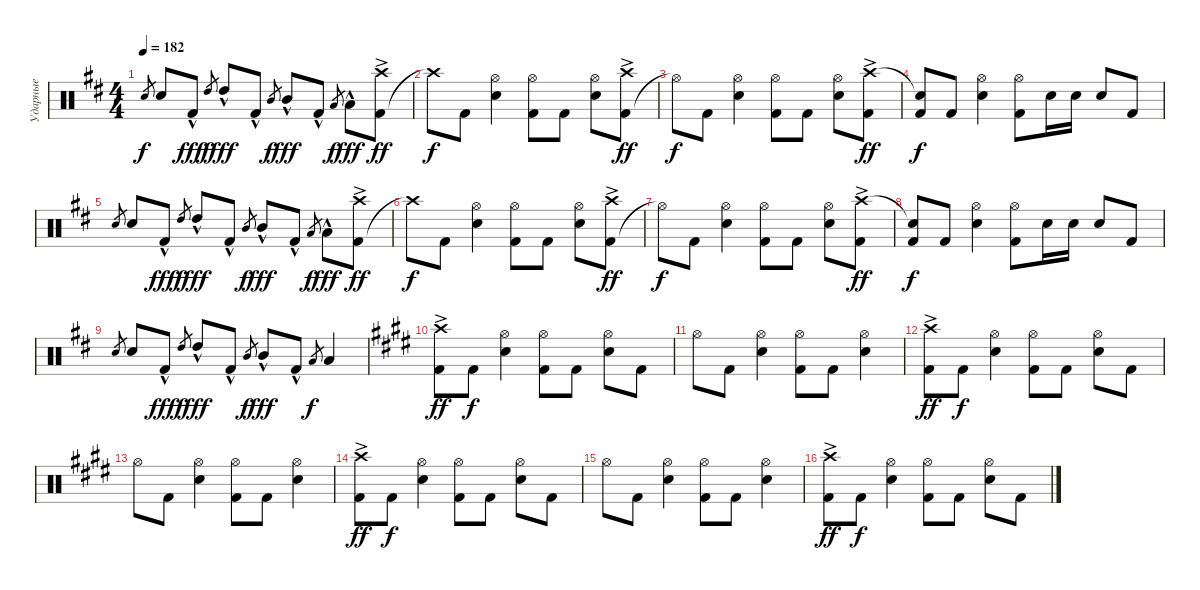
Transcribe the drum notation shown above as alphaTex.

\track ("Ударные" "Ударные") {instrument percussion}
\staff {score}
\articulation defaults
\ts (4 4)
\tempo 182
\clef neutral
\ks d "Snare (hit) 2".8{gr dy f} "Snare (hit) 2".8 "Kick (hit) 2"{hac}.8{dy fff} "High Tom (hit)".8{gr dy f} "High Tom (hit)"{hac}.8{dy fff} "Kick (hit) 2"{hac}.8 "Mid Tom (hit)".8{gr dy f} "Mid Tom (hit)"{hac}.8{dy fff} "Kick (hit) 2"{hac}.8 "Low Tom (hit)".8{gr dy f} "Low Tom (hit)"{hac}.8{dy fff}
("Kick (hit) 2" "Crash high (hit)"{ac}).8{dy ff} |
"Crash high (hit)"{t}.8{dy f} "Kick (hit) 2".8 ("Snare (hit) 2" "Hi-Hat (open)").4 ("Kick (hit) 2" "Hi-Hat (open)").8 "Kick (hit) 2".8 ("Snare (hit) 2" "Hi-Hat (open)").8 ("Kick (hit) 2" "Crash high (hit)"{ac}).8{dy ff} |
"Hi-Hat (open)"{t}.8{dy f} "Kick (hit) 2".8 ("Snare (hit) 2" "Hi-Hat (open)").4 ("Kick (hit) 2" "Hi-Hat (open)").8 "Kick (hit) 2".8 ("Snare (hit) 2" "Hi-Hat (open)").8 ("Kick (hit) 2" "Crash high (hit)"{ac}).8{dy ff} |
("Kick (hit) 2" "Snare (hit)"{t}).8{dy f} "Kick (hit) 2".8 ("Snare (hit) 2" "Hi-Hat (open)").4 ("Kick (hit) 2" "Hi-Hat (open)").8 "Snare (hit) 2".16 "Snare (hit) 2".16 "Snare (hit) 2".8 "Kick (hit) 2".8 |
"Snare (hit) 2".8{gr} "Snare (hit) 2".8 "Kick (hit) 2"{hac}.8{dy fff} "High Tom (hit)".8{gr dy f} "High Tom (hit)"{hac}.8{dy fff} "Kick (hit) 2"{hac}.8 "Mid Tom (hit)".8{gr dy f} "Mid Tom (hit)"{hac}.8{dy fff} "Kick (hit) 2"{hac}.8 "Low Tom (hit)".8{gr dy f} "Low Tom (hit)"{hac}.8{dy fff} ("Kick (hit) 2" "Crash high (hit)"{ac}).8{dy ff} |
"Crash high (hit)"{t}.8{dy f} "Kick (hit) 2".8 ("Snare (hit) 2" "Hi-Hat (open)").4 ("Kick (hit) 2" "Hi-Hat (open)").8 "Kick (hit) 2".8 ("Snare (hit) 2" "Hi-Hat (open)").8 ("Kick (hit) 2" "Crash high (hit)"{ac}).8{dy ff} |
"Hi-Hat (open)"{t}.8{dy f} "Kick (hit) 2".8 ("Snare (hit) 2" "Hi-Hat (open)").4 ("Kick (hit) 2" "Hi-Hat (open)").8 "Kick (hit) 2".8 ("Snare (hit) 2" "Hi-Hat (open)").8 ("Kick (hit) 2" "Crash high (hit)"{ac}).8{dy ff} |
("Kick (hit) 2" "Snare (hit)"{t}).8{dy f} "Kick (hit) 2".8 ("Snare (hit) 2" "Hi-Hat (open)").4 ("Kick (hit) 2" "Hi-Hat (open)").8 "Snare (hit) 2".16 "Snare (hit) 2".16 "Snare (hit) 2".8 "Kick (hit) 2".8 |
"Snare (hit) 2".8{gr} "Snare (hit) 2".8 "Kick (hit) 2"{hac}.8{dy fff} "High Tom (hit)".8{gr dy f} "High Tom (hit)"{hac}.8{dy fff} "Kick (hit) 2"{hac}.8 "Mid Tom (hit)".8{gr dy f} "Mid Tom (hit)"{hac}.8{dy fff} "Kick (hit) 2"{hac}.8 "Low Tom (hit)".8{gr dy f} "Low Tom (hit)".4 |
\ks e
("Kick (hit) 2" "Crash high (hit)"{ac}).8{dy ff} "Kick (hit) 2".8{dy f} ("Snare (hit) 2" "Hi-Hat (open)").4 ("Kick (hit) 2" "Hi-Hat (open)").8 "Kick (hit) 2".8 ("Snare (hit) 2" "Hi-Hat (open)").8 "Kick (hit) 2".8 |
"Hi-Hat (open)".8 "Kick (hit) 2".8 ("Snare (hit) 2" "Hi-Hat (open)").4 ("Kick (hit) 2" "Hi-Hat (open)").8 "Kick (hit) 2".8 ("Snare (hit) 2" "Hi-Hat (open)").4 |
("Kick (hit) 2" "Crash high (hit)"{ac}).8{dy ff} "Kick (hit) 2".8{dy f} ("Snare (hit) 2" "Hi-Hat (open)").4 ("Kick (hit) 2" "Hi-Hat (open)").8 "Kick (hit) 2".8 ("Snare (hit) 2" "Hi-Hat (open)").8 "Kick (hit) 2".8 |
"Hi-Hat (open)".8 "Kick (hit) 2".8 ("Snare (hit) 2" "Hi-Hat (open)").4 ("Kick (hit) 2" "Hi-Hat (open)").8 "Kick (hit) 2".8 ("Snare (hit) 2" "Hi-Hat (open)").4 |
("Kick (hit) 2" "Crash high (hit)"{ac}).8{dy ff} "Kick (hit) 2".8{dy f} ("Snare (hit) 2" "Hi-Hat (open)").4 ("Kick (hit) 2" "Hi-Hat (open)").8 "Kick (hit) 2".8 ("Snare (hit) 2" "Hi-Hat (open)").8 "Kick (hit) 2".8 |
"Hi-Hat (open)".8 "Kick (hit) 2".8 ("Snare (hit) 2" "Hi-Hat (open)").4 ("Kick (hit) 2" "Hi-Hat (open)").8 "Kick (hit) 2".8 ("Snare (hit) 2" "Hi-Hat (open)").4 |
("Kick (hit) 2" "Crash high (hit)"{ac}).8{dy ff} "Kick (hit) 2".8{dy f} ("Snare (hit) 2" "Hi-Hat (open)").4 ("Kick (hit) 2" "Hi-Hat (open)").8 "Kick (hit) 2".8 ("Snare (hit) 2" "Hi-Hat (open)").8 "Kick (hit) 2".8
